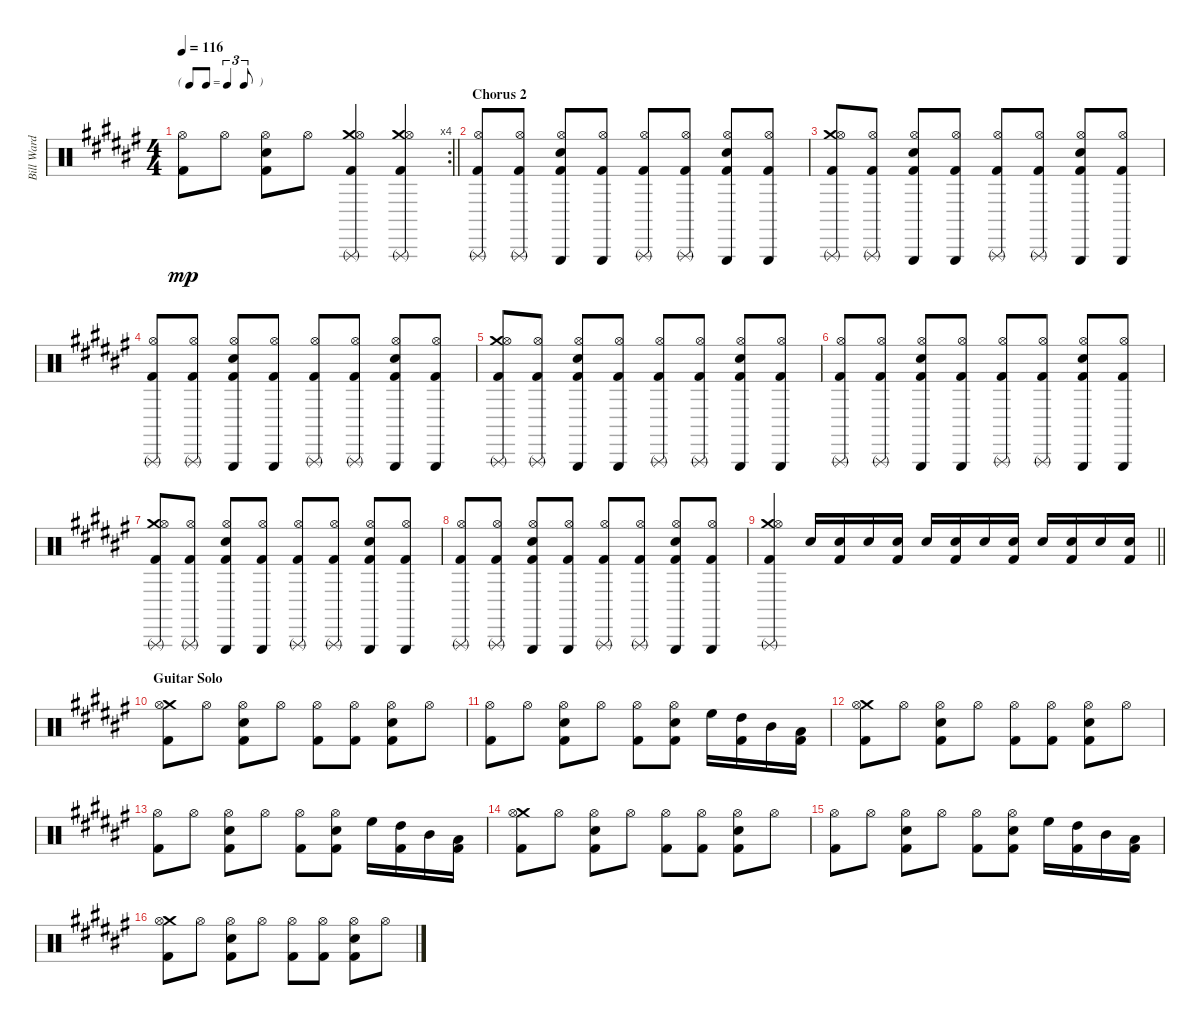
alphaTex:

\track ("Bill Ward" "Bill Ward") {instrument percussion}
\staff {score}
\articulation defaults
\rc 4
\ts (4 4)
\tf triplet8th
\tempo 116
\clef neutral
\barLineRight lightlight
\ks f#
("Hi-Hat (open)" "Kick (hit) 2").8{dy mp} "Hi-Hat (open)".8 ("Hi-Hat (open)" "Snare (hit) 2" "Kick (hit) 2").8 "Hi-Hat (open)".8 ("Crash medium (hit)" "Hi-Hat (open)" "Triangle (rnute)" "Kick (hit) 2").4 ("Crash medium (hit)" "Hi-Hat (open)" "Triangle (rnute)" "Kick (hit) 2").4 |
\section ("" "Chorus 2")
("Hi-Hat (open)" "Triangle (rnute)" "Kick (hit) 2").8 ("Hi-Hat (open)" "Triangle (rnute)" "Kick (hit) 2").8 ("Hi-Hat (open)" "Snare (hit) 2" "Triangle (hit)" "Kick (hit) 2").8 ("Hi-Hat (open)" "Triangle (hit)" "Kick (hit) 2").8 ("Hi-Hat (open)" "Triangle (rnute)" "Kick (hit) 2").8 ("Hi-Hat (open)" "Triangle (rnute)" "Kick (hit) 2").8 ("Hi-Hat (open)" "Snare (hit) 2" "Triangle (hit)" "Kick (hit) 2").8 ("Hi-Hat (open)" "Triangle (hit)" "Kick (hit) 2").8 |
("Crash medium (hit)" "Hi-Hat (open)" "Triangle (rnute)" "Kick (hit) 2").8 ("Hi-Hat (open)" "Triangle (rnute)" "Kick (hit) 2").8 ("Hi-Hat (open)" "Snare (hit) 2" "Triangle (hit)" "Kick (hit) 2").8 ("Hi-Hat (open)" "Triangle (hit)" "Kick (hit) 2").8 ("Hi-Hat (open)" "Triangle (rnute)" "Kick (hit) 2").8 ("Hi-Hat (open)" "Triangle (rnute)" "Kick (hit) 2").8 ("Hi-Hat (open)" "Snare (hit) 2" "Triangle (hit)" "Kick (hit) 2").8 ("Hi-Hat (open)" "Triangle (hit)" "Kick (hit) 2").8 |
("Hi-Hat (open)" "Triangle (rnute)" "Kick (hit) 2").8 ("Hi-Hat (open)" "Triangle (rnute)" "Kick (hit) 2").8 ("Hi-Hat (open)" "Snare (hit) 2" "Triangle (hit)" "Kick (hit) 2").8 ("Hi-Hat (open)" "Triangle (hit)" "Kick (hit) 2").8 ("Hi-Hat (open)" "Triangle (rnute)" "Kick (hit) 2").8 ("Hi-Hat (open)" "Triangle (rnute)" "Kick (hit) 2").8 ("Hi-Hat (open)" "Snare (hit) 2" "Triangle (hit)" "Kick (hit) 2").8 ("Hi-Hat (open)" "Triangle (hit)" "Kick (hit) 2").8 |
("Crash medium (hit)" "Hi-Hat (open)" "Triangle (rnute)" "Kick (hit) 2").8 ("Hi-Hat (open)" "Triangle (rnute)" "Kick (hit) 2").8 ("Hi-Hat (open)" "Snare (hit) 2" "Triangle (hit)" "Kick (hit) 2").8 ("Hi-Hat (open)" "Triangle (hit)" "Kick (hit) 2").8 ("Hi-Hat (open)" "Triangle (rnute)" "Kick (hit) 2").8 ("Hi-Hat (open)" "Triangle (rnute)" "Kick (hit) 2").8 ("Hi-Hat (open)" "Snare (hit) 2" "Triangle (hit)" "Kick (hit) 2").8 ("Hi-Hat (open)" "Triangle (hit)" "Kick (hit) 2").8 |
("Hi-Hat (open)" "Triangle (rnute)" "Kick (hit) 2").8 ("Hi-Hat (open)" "Triangle (rnute)" "Kick (hit) 2").8 ("Hi-Hat (open)" "Snare (hit) 2" "Triangle (hit)" "Kick (hit) 2").8 ("Hi-Hat (open)" "Triangle (hit)" "Kick (hit) 2").8 ("Hi-Hat (open)" "Triangle (rnute)" "Kick (hit) 2").8 ("Hi-Hat (open)" "Triangle (rnute)" "Kick (hit) 2").8 ("Hi-Hat (open)" "Snare (hit) 2" "Triangle (hit)" "Kick (hit) 2").8 ("Hi-Hat (open)" "Triangle (hit)" "Kick (hit) 2").8 |
("Crash medium (hit)" "Hi-Hat (open)" "Triangle (rnute)" "Kick (hit) 2").8 ("Hi-Hat (open)" "Triangle (rnute)" "Kick (hit) 2").8 ("Hi-Hat (open)" "Snare (hit) 2" "Triangle (hit)" "Kick (hit) 2").8 ("Hi-Hat (open)" "Triangle (hit)" "Kick (hit) 2").8 ("Hi-Hat (open)" "Triangle (rnute)" "Kick (hit) 2").8 ("Hi-Hat (open)" "Triangle (rnute)" "Kick (hit) 2").8 ("Hi-Hat (open)" "Snare (hit) 2" "Triangle (hit)" "Kick (hit) 2").8 ("Hi-Hat (open)" "Triangle (hit)" "Kick (hit) 2").8 |
("Hi-Hat (open)" "Triangle (rnute)" "Kick (hit) 2").8 ("Hi-Hat (open)" "Triangle (rnute)" "Kick (hit) 2").8 ("Hi-Hat (open)" "Snare (hit) 2" "Triangle (hit)" "Kick (hit) 2").8 ("Hi-Hat (open)" "Triangle (hit)" "Kick (hit) 2").8 ("Hi-Hat (open)" "Triangle (rnute)" "Kick (hit) 2").8 ("Hi-Hat (open)" "Triangle (rnute)" "Kick (hit) 2").8 ("Hi-Hat (open)" "Snare (hit) 2" "Triangle (hit)" "Kick (hit) 2").8 ("Hi-Hat (open)" "Triangle (hit)" "Kick (hit) 2").8 |
\barLineRight lightlight
("Crash medium (hit)" "Hi-Hat (open)" "Triangle (rnute)" "Kick (hit) 2").4 "Snare (hit) 2".16 ("Snare (hit) 2" "Kick (hit) 2").16 "Snare (hit) 2".16 ("Snare (hit) 2" "Kick (hit) 2").16 "Snare (hit) 2".16 ("Snare (hit) 2" "Kick (hit) 2").16 "Snare (hit) 2".16 ("Snare (hit) 2" "Kick (hit) 2").16 "Snare (hit) 2".16 ("Snare (hit) 2" "Kick (hit) 2").16 "Snare (hit) 2".16 ("Snare (hit) 2" "Kick (hit) 2").16 |
\section ("" "Guitar Solo")
("Crash medium (hit)" "Hi-Hat (open)" "Kick (hit) 2").8 "Hi-Hat (open)".8 ("Hi-Hat (open)" "Snare (hit) 2" "Kick (hit) 2").8 "Hi-Hat (open)".8 ("Hi-Hat (open)" "Kick (hit) 2").8 ("Hi-Hat (open)" "Kick (hit) 2").8 ("Hi-Hat (open)" "Snare (hit) 2" "Kick (hit) 2").8 "Hi-Hat (open)".8 |
("Hi-Hat (open)" "Kick (hit) 2").8 "Hi-Hat (open)".8 ("Hi-Hat (open)" "Snare (hit) 2" "Kick (hit) 2").8 "Hi-Hat (open)".8 ("Hi-Hat (open)" "Kick (hit) 2").8 ("Hi-Hat (open)" "Snare (hit) 2" "Kick (hit) 2").8 "High Floor Tom (hit)".16 ("High Tom (hit)" "Kick (hit) 2").16 "Mid Tom (hit)".16 ("Low Tom (hit)" "Kick (hit) 2").16 |
("Crash medium (hit)" "Hi-Hat (open)" "Kick (hit) 2").8 "Hi-Hat (open)".8 ("Hi-Hat (open)" "Snare (hit) 2" "Kick (hit) 2").8 "Hi-Hat (open)".8 ("Hi-Hat (open)" "Kick (hit) 2").8 ("Hi-Hat (open)" "Kick (hit) 2").8 ("Hi-Hat (open)" "Snare (hit) 2" "Kick (hit) 2").8 "Hi-Hat (open)".8 |
("Hi-Hat (open)" "Kick (hit) 2").8 "Hi-Hat (open)".8 ("Hi-Hat (open)" "Snare (hit) 2" "Kick (hit) 2").8 "Hi-Hat (open)".8 ("Hi-Hat (open)" "Kick (hit) 2").8 ("Hi-Hat (open)" "Snare (hit) 2" "Kick (hit) 2").8 "High Floor Tom (hit)".16 ("High Tom (hit)" "Kick (hit) 2").16 "Mid Tom (hit)".16 ("Low Tom (hit)" "Kick (hit) 2").16 |
("Crash medium (hit)" "Hi-Hat (open)" "Kick (hit) 2").8 "Hi-Hat (open)".8 ("Hi-Hat (open)" "Snare (hit) 2" "Kick (hit) 2").8 "Hi-Hat (open)".8 ("Hi-Hat (open)" "Kick (hit) 2").8 ("Hi-Hat (open)" "Kick (hit) 2").8 ("Hi-Hat (open)" "Snare (hit) 2" "Kick (hit) 2").8 "Hi-Hat (open)".8 |
("Hi-Hat (open)" "Kick (hit) 2").8 "Hi-Hat (open)".8 ("Hi-Hat (open)" "Snare (hit) 2" "Kick (hit) 2").8 "Hi-Hat (open)".8 ("Hi-Hat (open)" "Kick (hit) 2").8 ("Hi-Hat (open)" "Snare (hit) 2" "Kick (hit) 2").8 "High Floor Tom (hit)".16 ("High Tom (hit)" "Kick (hit) 2").16 "Mid Tom (hit)".16 ("Low Tom (hit)" "Kick (hit) 2").16 |
("Crash medium (hit)" "Hi-Hat (open)" "Kick (hit) 2").8 "Hi-Hat (open)".8 ("Hi-Hat (open)" "Snare (hit) 2" "Kick (hit) 2").8 "Hi-Hat (open)".8 ("Hi-Hat (open)" "Kick (hit) 2").8 ("Hi-Hat (open)" "Kick (hit) 2").8 ("Hi-Hat (open)" "Snare (hit) 2" "Kick (hit) 2").8 "Hi-Hat (open)".8
